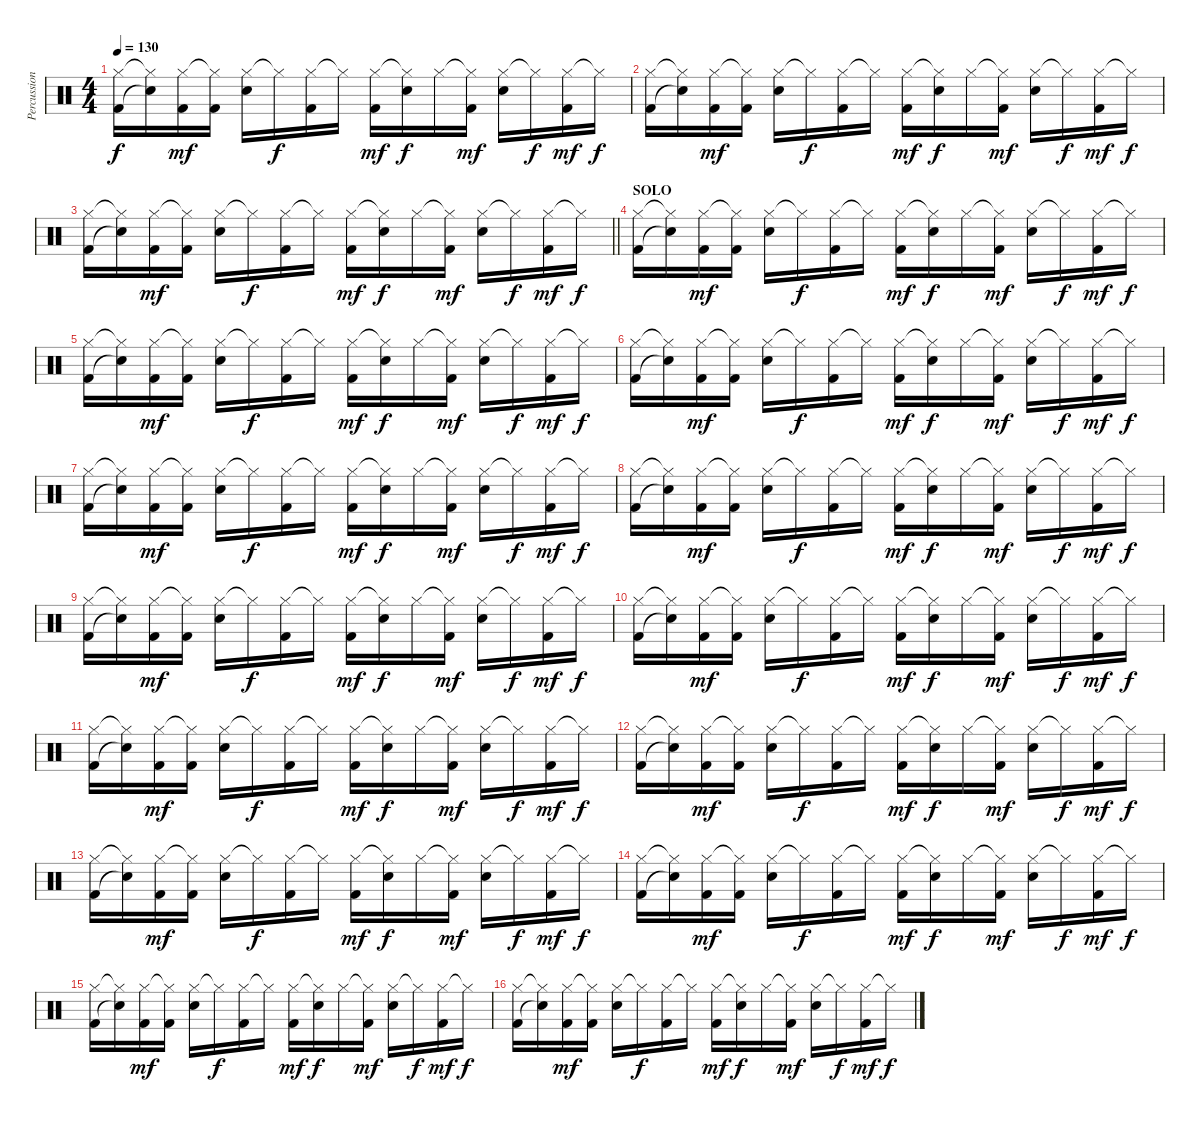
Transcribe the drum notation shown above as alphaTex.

\track ("Percussion" "Percussion") {instrument percussion}
\staff {score}
\articulation defaults
\ts (4 4)
\tempo 130
\clef neutral
\ks c
("Hi-Hat (closed)" "Kick (hit) 2").16{dy f} ("Hi-Hat (closed)"{t} "Snare (hit)"{t}).16 ("Hi-Hat (closed)" "Kick (hit) 2").16{dy mf} ("Hi-Hat (closed)"{t} "Kick (hit) 2").16 ("Hi-Hat (closed)" "Snare (hit) 2").16 "Hi-Hat (closed)"{t}.16{dy f} ("Hi-Hat (closed)" "Kick (hit) 2").16 "Hi-Hat (closed)"{t}.16 ("Hi-Hat (closed)" "Kick (hit) 2").16{dy mf} ("Hi-Hat (closed)"{t} "Snare (hit) 2").16{dy f} "Hi-Hat (closed)".16 ("Hi-Hat (closed)"{t} "Kick (hit) 2").16{dy mf} ("Hi-Hat (closed)" "Snare (hit) 2").16 "Hi-Hat (closed)"{t}.16{dy f} ("Hi-Hat (closed)" "Kick (hit) 2").16{dy mf} "Hi-Hat (closed)"{t}.16{dy f} |
("Hi-Hat (closed)" "Kick (hit) 2").16 ("Hi-Hat (closed)"{t} "Snare (hit)"{t}).16 ("Hi-Hat (closed)" "Kick (hit) 2").16{dy mf} ("Hi-Hat (closed)"{t} "Kick (hit) 2").16 ("Hi-Hat (closed)" "Snare (hit) 2").16 "Hi-Hat (closed)"{t}.16{dy f} ("Hi-Hat (closed)" "Kick (hit) 2").16 "Hi-Hat (closed)"{t}.16 ("Hi-Hat (closed)" "Kick (hit) 2").16{dy mf} ("Hi-Hat (closed)"{t} "Snare (hit) 2").16{dy f} "Hi-Hat (closed)".16 ("Hi-Hat (closed)"{t} "Kick (hit) 2").16{dy mf} ("Hi-Hat (closed)" "Snare (hit) 2").16 "Hi-Hat (closed)"{t}.16{dy f} ("Hi-Hat (closed)" "Kick (hit) 2").16{dy mf} "Hi-Hat (closed)"{t}.16{dy f} |
\barLineRight lightlight
("Hi-Hat (closed)" "Kick (hit) 2").16 ("Hi-Hat (closed)"{t} "Snare (hit)"{t}).16 ("Hi-Hat (closed)" "Kick (hit) 2").16{dy mf} ("Hi-Hat (closed)"{t} "Kick (hit) 2").16 ("Hi-Hat (closed)" "Snare (hit) 2").16 "Hi-Hat (closed)"{t}.16{dy f} ("Hi-Hat (closed)" "Kick (hit) 2").16 "Hi-Hat (closed)"{t}.16 ("Hi-Hat (closed)" "Kick (hit) 2").16{dy mf} ("Hi-Hat (closed)"{t} "Snare (hit) 2").16{dy f} "Hi-Hat (closed)".16 ("Hi-Hat (closed)"{t} "Kick (hit) 2").16{dy mf} ("Hi-Hat (closed)" "Snare (hit) 2").16 "Hi-Hat (closed)"{t}.16{dy f} ("Hi-Hat (closed)" "Kick (hit) 2").16{dy mf} "Hi-Hat (closed)"{t}.16{dy f} |
\section ("" "SOLO")
("Hi-Hat (closed)" "Kick (hit) 2").16 ("Hi-Hat (closed)"{t} "Snare (hit)"{t}).16 ("Hi-Hat (closed)" "Kick (hit) 2").16{dy mf} ("Hi-Hat (closed)"{t} "Kick (hit) 2").16 ("Hi-Hat (closed)" "Snare (hit) 2").16 "Hi-Hat (closed)"{t}.16{dy f} ("Hi-Hat (closed)" "Kick (hit) 2").16 "Hi-Hat (closed)"{t}.16 ("Hi-Hat (closed)" "Kick (hit) 2").16{dy mf} ("Hi-Hat (closed)"{t} "Snare (hit) 2").16{dy f} "Hi-Hat (closed)".16 ("Hi-Hat (closed)"{t} "Kick (hit) 2").16{dy mf} ("Hi-Hat (closed)" "Snare (hit) 2").16 "Hi-Hat (closed)"{t}.16{dy f} ("Hi-Hat (closed)" "Kick (hit) 2").16{dy mf} "Hi-Hat (closed)"{t}.16{dy f} |
("Hi-Hat (closed)" "Kick (hit) 2").16 ("Hi-Hat (closed)"{t} "Snare (hit)"{t}).16 ("Hi-Hat (closed)" "Kick (hit) 2").16{dy mf} ("Hi-Hat (closed)"{t} "Kick (hit) 2").16 ("Hi-Hat (closed)" "Snare (hit) 2").16 "Hi-Hat (closed)"{t}.16{dy f} ("Hi-Hat (closed)" "Kick (hit) 2").16 "Hi-Hat (closed)"{t}.16 ("Hi-Hat (closed)" "Kick (hit) 2").16{dy mf} ("Hi-Hat (closed)"{t} "Snare (hit) 2").16{dy f} "Hi-Hat (closed)".16 ("Hi-Hat (closed)"{t} "Kick (hit) 2").16{dy mf} ("Hi-Hat (closed)" "Snare (hit) 2").16 "Hi-Hat (closed)"{t}.16{dy f} ("Hi-Hat (closed)" "Kick (hit) 2").16{dy mf} "Hi-Hat (closed)"{t}.16{dy f} |
("Hi-Hat (closed)" "Kick (hit) 2").16 ("Hi-Hat (closed)"{t} "Snare (hit)"{t}).16 ("Hi-Hat (closed)" "Kick (hit) 2").16{dy mf} ("Hi-Hat (closed)"{t} "Kick (hit) 2").16 ("Hi-Hat (closed)" "Snare (hit) 2").16 "Hi-Hat (closed)"{t}.16{dy f} ("Hi-Hat (closed)" "Kick (hit) 2").16 "Hi-Hat (closed)"{t}.16 ("Hi-Hat (closed)" "Kick (hit) 2").16{dy mf} ("Hi-Hat (closed)"{t} "Snare (hit) 2").16{dy f} "Hi-Hat (closed)".16 ("Hi-Hat (closed)"{t} "Kick (hit) 2").16{dy mf} ("Hi-Hat (closed)" "Snare (hit) 2").16 "Hi-Hat (closed)"{t}.16{dy f} ("Hi-Hat (closed)" "Kick (hit) 2").16{dy mf} "Hi-Hat (closed)"{t}.16{dy f} |
("Hi-Hat (closed)" "Kick (hit) 2").16 ("Hi-Hat (closed)"{t} "Snare (hit)"{t}).16 ("Hi-Hat (closed)" "Kick (hit) 2").16{dy mf} ("Hi-Hat (closed)"{t} "Kick (hit) 2").16 ("Hi-Hat (closed)" "Snare (hit) 2").16 "Hi-Hat (closed)"{t}.16{dy f} ("Hi-Hat (closed)" "Kick (hit) 2").16 "Hi-Hat (closed)"{t}.16 ("Hi-Hat (closed)" "Kick (hit) 2").16{dy mf} ("Hi-Hat (closed)"{t} "Snare (hit) 2").16{dy f} "Hi-Hat (closed)".16 ("Hi-Hat (closed)"{t} "Kick (hit) 2").16{dy mf} ("Hi-Hat (closed)" "Snare (hit) 2").16 "Hi-Hat (closed)"{t}.16{dy f} ("Hi-Hat (closed)" "Kick (hit) 2").16{dy mf} "Hi-Hat (closed)"{t}.16{dy f} |
("Hi-Hat (closed)" "Kick (hit) 2").16 ("Hi-Hat (closed)"{t} "Snare (hit)"{t}).16 ("Hi-Hat (closed)" "Kick (hit) 2").16{dy mf} ("Hi-Hat (closed)"{t} "Kick (hit) 2").16 ("Hi-Hat (closed)" "Snare (hit) 2").16 "Hi-Hat (closed)"{t}.16{dy f} ("Hi-Hat (closed)" "Kick (hit) 2").16 "Hi-Hat (closed)"{t}.16 ("Hi-Hat (closed)" "Kick (hit) 2").16{dy mf} ("Hi-Hat (closed)"{t} "Snare (hit) 2").16{dy f} "Hi-Hat (closed)".16 ("Hi-Hat (closed)"{t} "Kick (hit) 2").16{dy mf} ("Hi-Hat (closed)" "Snare (hit) 2").16 "Hi-Hat (closed)"{t}.16{dy f} ("Hi-Hat (closed)" "Kick (hit) 2").16{dy mf} "Hi-Hat (closed)"{t}.16{dy f} |
("Hi-Hat (closed)" "Kick (hit) 2").16 ("Hi-Hat (closed)"{t} "Snare (hit)"{t}).16 ("Hi-Hat (closed)" "Kick (hit) 2").16{dy mf} ("Hi-Hat (closed)"{t} "Kick (hit) 2").16 ("Hi-Hat (closed)" "Snare (hit) 2").16 "Hi-Hat (closed)"{t}.16{dy f} ("Hi-Hat (closed)" "Kick (hit) 2").16 "Hi-Hat (closed)"{t}.16 ("Hi-Hat (closed)" "Kick (hit) 2").16{dy mf} ("Hi-Hat (closed)"{t} "Snare (hit) 2").16{dy f} "Hi-Hat (closed)".16 ("Hi-Hat (closed)"{t} "Kick (hit) 2").16{dy mf} ("Hi-Hat (closed)" "Snare (hit) 2").16 "Hi-Hat (closed)"{t}.16{dy f} ("Hi-Hat (closed)" "Kick (hit) 2").16{dy mf} "Hi-Hat (closed)"{t}.16{dy f} |
("Hi-Hat (closed)" "Kick (hit) 2").16 ("Hi-Hat (closed)"{t} "Snare (hit)"{t}).16 ("Hi-Hat (closed)" "Kick (hit) 2").16{dy mf} ("Hi-Hat (closed)"{t} "Kick (hit) 2").16 ("Hi-Hat (closed)" "Snare (hit) 2").16 "Hi-Hat (closed)"{t}.16{dy f} ("Hi-Hat (closed)" "Kick (hit) 2").16 "Hi-Hat (closed)"{t}.16 ("Hi-Hat (closed)" "Kick (hit) 2").16{dy mf} ("Hi-Hat (closed)"{t} "Snare (hit) 2").16{dy f} "Hi-Hat (closed)".16 ("Hi-Hat (closed)"{t} "Kick (hit) 2").16{dy mf} ("Hi-Hat (closed)" "Snare (hit) 2").16 "Hi-Hat (closed)"{t}.16{dy f} ("Hi-Hat (closed)" "Kick (hit) 2").16{dy mf} "Hi-Hat (closed)"{t}.16{dy f} |
("Hi-Hat (closed)" "Kick (hit) 2").16 ("Hi-Hat (closed)"{t} "Snare (hit)"{t}).16 ("Hi-Hat (closed)" "Kick (hit) 2").16{dy mf} ("Hi-Hat (closed)"{t} "Kick (hit) 2").16 ("Hi-Hat (closed)" "Snare (hit) 2").16 "Hi-Hat (closed)"{t}.16{dy f} ("Hi-Hat (closed)" "Kick (hit) 2").16 "Hi-Hat (closed)"{t}.16 ("Hi-Hat (closed)" "Kick (hit) 2").16{dy mf} ("Hi-Hat (closed)"{t} "Snare (hit) 2").16{dy f} "Hi-Hat (closed)".16 ("Hi-Hat (closed)"{t} "Kick (hit) 2").16{dy mf} ("Hi-Hat (closed)" "Snare (hit) 2").16 "Hi-Hat (closed)"{t}.16{dy f} ("Hi-Hat (closed)" "Kick (hit) 2").16{dy mf} "Hi-Hat (closed)"{t}.16{dy f} |
("Hi-Hat (closed)" "Kick (hit) 2").16 ("Hi-Hat (closed)"{t} "Snare (hit)"{t}).16 ("Hi-Hat (closed)" "Kick (hit) 2").16{dy mf} ("Hi-Hat (closed)"{t} "Kick (hit) 2").16 ("Hi-Hat (closed)" "Snare (hit) 2").16 "Hi-Hat (closed)"{t}.16{dy f} ("Hi-Hat (closed)" "Kick (hit) 2").16 "Hi-Hat (closed)"{t}.16 ("Hi-Hat (closed)" "Kick (hit) 2").16{dy mf} ("Hi-Hat (closed)"{t} "Snare (hit) 2").16{dy f} "Hi-Hat (closed)".16 ("Hi-Hat (closed)"{t} "Kick (hit) 2").16{dy mf} ("Hi-Hat (closed)" "Snare (hit) 2").16 "Hi-Hat (closed)"{t}.16{dy f} ("Hi-Hat (closed)" "Kick (hit) 2").16{dy mf} "Hi-Hat (closed)"{t}.16{dy f} |
("Hi-Hat (closed)" "Kick (hit) 2").16 ("Hi-Hat (closed)"{t} "Snare (hit)"{t}).16 ("Hi-Hat (closed)" "Kick (hit) 2").16{dy mf} ("Hi-Hat (closed)"{t} "Kick (hit) 2").16 ("Hi-Hat (closed)" "Snare (hit) 2").16 "Hi-Hat (closed)"{t}.16{dy f} ("Hi-Hat (closed)" "Kick (hit) 2").16 "Hi-Hat (closed)"{t}.16 ("Hi-Hat (closed)" "Kick (hit) 2").16{dy mf} ("Hi-Hat (closed)"{t} "Snare (hit) 2").16{dy f} "Hi-Hat (closed)".16 ("Hi-Hat (closed)"{t} "Kick (hit) 2").16{dy mf} ("Hi-Hat (closed)" "Snare (hit) 2").16 "Hi-Hat (closed)"{t}.16{dy f} ("Hi-Hat (closed)" "Kick (hit) 2").16{dy mf} "Hi-Hat (closed)"{t}.16{dy f} |
("Hi-Hat (closed)" "Kick (hit) 2").16 ("Hi-Hat (closed)"{t} "Snare (hit)"{t}).16 ("Hi-Hat (closed)" "Kick (hit) 2").16{dy mf} ("Hi-Hat (closed)"{t} "Kick (hit) 2").16 ("Hi-Hat (closed)" "Snare (hit) 2").16 "Hi-Hat (closed)"{t}.16{dy f} ("Hi-Hat (closed)" "Kick (hit) 2").16 "Hi-Hat (closed)"{t}.16 ("Hi-Hat (closed)" "Kick (hit) 2").16{dy mf} ("Hi-Hat (closed)"{t} "Snare (hit) 2").16{dy f} "Hi-Hat (closed)".16 ("Hi-Hat (closed)"{t} "Kick (hit) 2").16{dy mf} ("Hi-Hat (closed)" "Snare (hit) 2").16 "Hi-Hat (closed)"{t}.16{dy f} ("Hi-Hat (closed)" "Kick (hit) 2").16{dy mf} "Hi-Hat (closed)"{t}.16{dy f} |
("Hi-Hat (closed)" "Kick (hit) 2").16 ("Hi-Hat (closed)"{t} "Snare (hit)"{t}).16 ("Hi-Hat (closed)" "Kick (hit) 2").16{dy mf} ("Hi-Hat (closed)"{t} "Kick (hit) 2").16 ("Hi-Hat (closed)" "Snare (hit) 2").16 "Hi-Hat (closed)"{t}.16{dy f} ("Hi-Hat (closed)" "Kick (hit) 2").16 "Hi-Hat (closed)"{t}.16 ("Hi-Hat (closed)" "Kick (hit) 2").16{dy mf} ("Hi-Hat (closed)"{t} "Snare (hit) 2").16{dy f} "Hi-Hat (closed)".16 ("Hi-Hat (closed)"{t} "Kick (hit) 2").16{dy mf} ("Hi-Hat (closed)" "Snare (hit) 2").16 "Hi-Hat (closed)"{t}.16{dy f} ("Hi-Hat (closed)" "Kick (hit) 2").16{dy mf} "Hi-Hat (closed)"{t}.16{dy f} |
("Hi-Hat (closed)" "Kick (hit) 2").16 ("Hi-Hat (closed)"{t} "Snare (hit)"{t}).16 ("Hi-Hat (closed)" "Kick (hit) 2").16{dy mf} ("Hi-Hat (closed)"{t} "Kick (hit) 2").16 ("Hi-Hat (closed)" "Snare (hit) 2").16 "Hi-Hat (closed)"{t}.16{dy f} ("Hi-Hat (closed)" "Kick (hit) 2").16 "Hi-Hat (closed)"{t}.16 ("Hi-Hat (closed)" "Kick (hit) 2").16{dy mf} ("Hi-Hat (closed)"{t} "Snare (hit) 2").16{dy f} "Hi-Hat (closed)".16 ("Hi-Hat (closed)"{t} "Kick (hit) 2").16{dy mf} ("Hi-Hat (closed)" "Snare (hit) 2").16 "Hi-Hat (closed)"{t}.16{dy f} ("Hi-Hat (closed)" "Kick (hit) 2").16{dy mf} "Hi-Hat (closed)"{t}.16{dy f}
